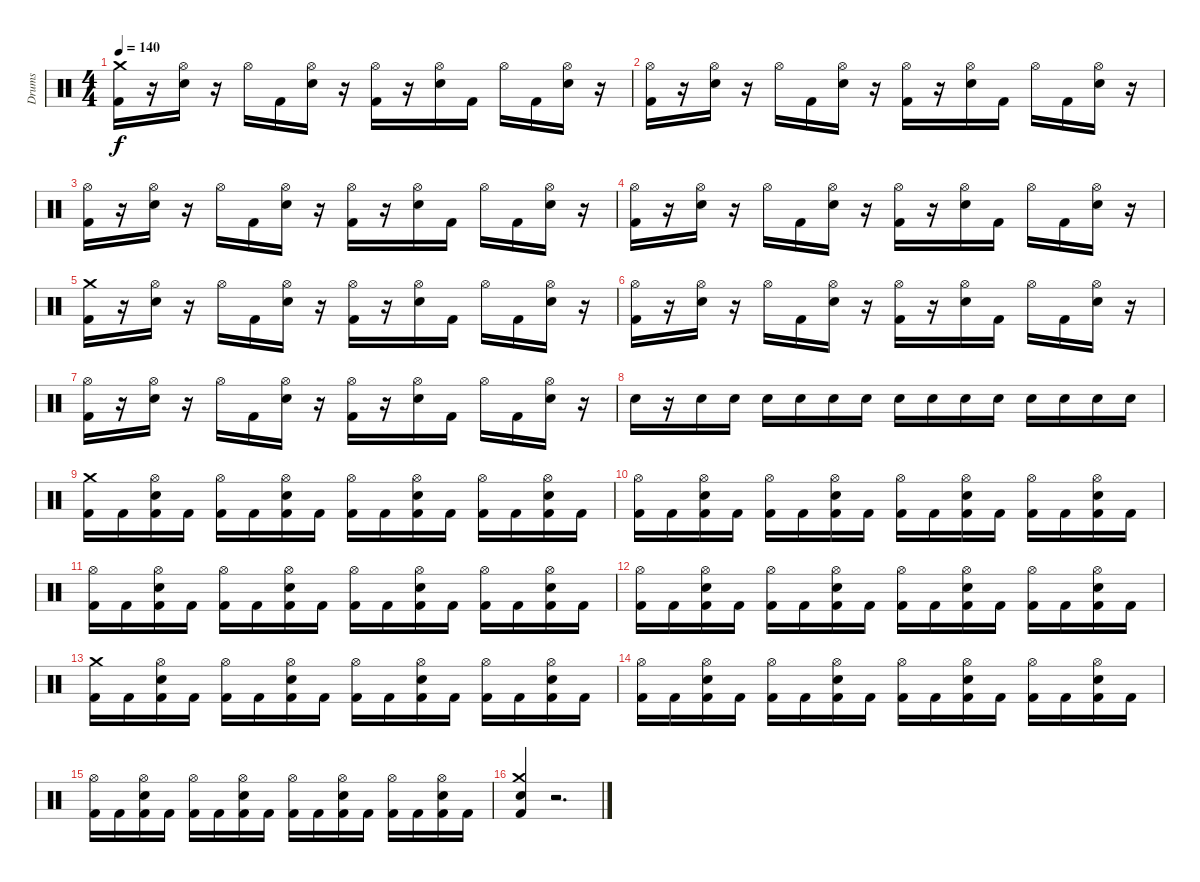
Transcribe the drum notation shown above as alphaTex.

\track ("Drums" "Drums") {instrument percussion}
\staff {score}
\articulation defaults
\ts (4 4)
\tempo 140
\clef neutral
\ks c
("Kick (hit) 2" "Crash medium (hit)").16{dy f} r.16 ("Electric Snare (hit)" "Hi-Hat (open)").16 r.16 "Hi-Hat (open)".16 "Kick (hit) 2".16 ("Electric Snare (hit)" "Hi-Hat (open)").16 r.16 ("Hi-Hat (open)" "Kick (hit) 2").16 r.16 ("Electric Snare (hit)" "Hi-Hat (open)").16 "Kick (hit) 2".16 "Hi-Hat (open)".16 "Kick (hit) 2".16 ("Electric Snare (hit)" "Hi-Hat (open)").16 r.16 |
("Kick (hit) 2" "Hi-Hat (open)").16 r.16 ("Hi-Hat (open)" "Electric Snare (hit)").16 r.16 "Hi-Hat (open)".16 "Kick (hit) 2".16 ("Electric Snare (hit)" "Hi-Hat (open)").16 r.16 ("Kick (hit) 2" "Hi-Hat (open)").16 r.16 ("Hi-Hat (open)" "Electric Snare (hit)").16 "Kick (hit) 2".16 "Hi-Hat (open)".16 "Kick (hit) 2".16 ("Electric Snare (hit)" "Hi-Hat (open)").16 r.16 |
("Kick (hit) 2" "Hi-Hat (open)").16 r.16 ("Electric Snare (hit)" "Hi-Hat (open)").16 r.16 "Hi-Hat (open)".16 "Kick (hit) 2".16 ("Hi-Hat (open)" "Electric Snare (hit)").16 r.16 ("Hi-Hat (open)" "Kick (hit) 2").16 r.16 ("Electric Snare (hit)" "Hi-Hat (open)").16 "Kick (hit) 2".16 "Hi-Hat (open)".16 "Kick (hit) 2".16 ("Hi-Hat (open)" "Electric Snare (hit)").16 r.16 |
("Kick (hit) 2" "Hi-Hat (open)").16 r.16 ("Electric Snare (hit)" "Hi-Hat (open)").16 r.16 "Hi-Hat (open)".16 "Kick (hit) 2".16 ("Hi-Hat (open)" "Electric Snare (hit)").16 r.16 ("Hi-Hat (open)" "Kick (hit) 2").16 r.16 ("Electric Snare (hit)" "Hi-Hat (open)").16 "Kick (hit) 2".16 "Hi-Hat (open)".16 "Kick (hit) 2".16 ("Electric Snare (hit)" "Hi-Hat (open)").16 r.16 |
("Kick (hit) 2" "Crash medium (hit)").16 r.16 ("Hi-Hat (open)" "Electric Snare (hit)").16 r.16 "Hi-Hat (open)".16 "Kick (hit) 2".16 ("Hi-Hat (open)" "Electric Snare (hit)").16 r.16 ("Kick (hit) 2" "Hi-Hat (open)").16 r.16 ("Hi-Hat (open)" "Electric Snare (hit)").16 "Kick (hit) 2".16 "Hi-Hat (open)".16 "Kick (hit) 2".16 ("Hi-Hat (open)" "Electric Snare (hit)").16 r.16 |
("Hi-Hat (open)" "Kick (hit) 2").16 r.16 ("Electric Snare (hit)" "Hi-Hat (open)").16 r.16 "Hi-Hat (open)".16 "Kick (hit) 2".16 ("Hi-Hat (open)" "Electric Snare (hit)").16 r.16 ("Kick (hit) 2" "Hi-Hat (open)").16 r.16 ("Hi-Hat (open)" "Electric Snare (hit)").16 "Kick (hit) 2".16 "Hi-Hat (open)".16 "Kick (hit) 2".16 ("Electric Snare (hit)" "Hi-Hat (open)").16 r.16 |
("Kick (hit) 2" "Hi-Hat (open)").16 r.16 ("Electric Snare (hit)" "Hi-Hat (open)").16 r.16 "Hi-Hat (open)".16 "Kick (hit) 2".16 ("Hi-Hat (open)" "Electric Snare (hit)").16 r.16 ("Kick (hit) 2" "Hi-Hat (open)").16 r.16 ("Electric Snare (hit)" "Hi-Hat (open)").16 "Kick (hit) 2".16 "Hi-Hat (open)".16 "Kick (hit) 2".16 ("Hi-Hat (open)" "Electric Snare (hit)").16 r.16 |
"Electric Snare (hit)".16 r.16 "Electric Snare (hit)".16 "Electric Snare (hit)".16 "Electric Snare (hit)".16 "Electric Snare (hit)".16 "Electric Snare (hit)".16 "Electric Snare (hit)".16 "Electric Snare (hit)".16 "Electric Snare (hit)".16 "Electric Snare (hit)".16 "Electric Snare (hit)".16 "Electric Snare (hit)".16 "Electric Snare (hit)".16 "Electric Snare (hit)".16 "Electric Snare (hit)".16 |
("Crash medium (hit)" "Kick (hit) 2").16 "Kick (hit) 2".16 ("Kick (hit) 2" "Hi-Hat (open)" "Electric Snare (hit)").16 "Kick (hit) 2".16 ("Kick (hit) 2" "Hi-Hat (open)").16 "Kick (hit) 2".16 ("Hi-Hat (open)" "Kick (hit) 2" "Electric Snare (hit)").16 "Kick (hit) 2".16 ("Kick (hit) 2" "Hi-Hat (open)").16 "Kick (hit) 2".16 ("Hi-Hat (open)" "Kick (hit) 2" "Electric Snare (hit)").16 "Kick (hit) 2".16 ("Kick (hit) 2" "Hi-Hat (open)").16 "Kick (hit) 2".16 ("Hi-Hat (open)" "Electric Snare (hit)" "Kick (hit) 2").16 "Kick (hit) 2".16 |
("Kick (hit) 2" "Hi-Hat (open)").16 "Kick (hit) 2".16 ("Hi-Hat (open)" "Kick (hit) 2" "Electric Snare (hit)").16 "Kick (hit) 2".16 ("Kick (hit) 2" "Hi-Hat (open)").16 "Kick (hit) 2".16 ("Hi-Hat (open)" "Kick (hit) 2" "Electric Snare (hit)").16 "Kick (hit) 2".16 ("Kick (hit) 2" "Hi-Hat (open)").16 "Kick (hit) 2".16 ("Hi-Hat (open)" "Kick (hit) 2" "Electric Snare (hit)").16 "Kick (hit) 2".16 ("Hi-Hat (open)" "Kick (hit) 2").16 "Kick (hit) 2".16 ("Electric Snare (hit)" "Kick (hit) 2" "Hi-Hat (open)").16 "Kick (hit) 2".16 |
("Hi-Hat (open)" "Kick (hit) 2").16 "Kick (hit) 2".16 ("Hi-Hat (open)" "Kick (hit) 2" "Electric Snare (hit)").16 "Kick (hit) 2".16 ("Kick (hit) 2" "Hi-Hat (open)").16 "Kick (hit) 2".16 ("Hi-Hat (open)" "Electric Snare (hit)" "Kick (hit) 2").16 "Kick (hit) 2".16 ("Hi-Hat (open)" "Kick (hit) 2").16 "Kick (hit) 2".16 ("Electric Snare (hit)" "Kick (hit) 2" "Hi-Hat (open)").16 "Kick (hit) 2".16 ("Hi-Hat (open)" "Kick (hit) 2").16 "Kick (hit) 2".16 ("Hi-Hat (open)" "Kick (hit) 2" "Electric Snare (hit)").16 "Kick (hit) 2".16 |
("Kick (hit) 2" "Hi-Hat (open)").16 "Kick (hit) 2".16 ("Hi-Hat (open)" "Kick (hit) 2" "Electric Snare (hit)").16 "Kick (hit) 2".16 ("Kick (hit) 2" "Hi-Hat (open)").16 "Kick (hit) 2".16 ("Electric Snare (hit)" "Kick (hit) 2" "Hi-Hat (open)").16 "Kick (hit) 2".16 ("Kick (hit) 2" "Hi-Hat (open)").16 "Kick (hit) 2".16 ("Electric Snare (hit)" "Hi-Hat (open)" "Kick (hit) 2").16 "Kick (hit) 2".16 ("Kick (hit) 2" "Hi-Hat (open)").16 "Kick (hit) 2".16 ("Electric Snare (hit)" "Hi-Hat (open)" "Kick (hit) 2").16 "Kick (hit) 2".16 |
("Crash medium (hit)" "Kick (hit) 2").16 "Kick (hit) 2".16 ("Electric Snare (hit)" "Kick (hit) 2" "Hi-Hat (open)").16 "Kick (hit) 2".16 ("Kick (hit) 2" "Hi-Hat (open)").16 "Kick (hit) 2".16 ("Electric Snare (hit)" "Hi-Hat (open)" "Kick (hit) 2").16 "Kick (hit) 2".16 ("Kick (hit) 2" "Hi-Hat (open)").16 "Kick (hit) 2".16 ("Electric Snare (hit)" "Hi-Hat (open)" "Kick (hit) 2").16 "Kick (hit) 2".16 ("Kick (hit) 2" "Hi-Hat (open)").16 "Kick (hit) 2".16 ("Kick (hit) 2" "Electric Snare (hit)" "Hi-Hat (open)").16 "Kick (hit) 2".16 |
("Kick (hit) 2" "Hi-Hat (open)").16 "Kick (hit) 2".16 ("Hi-Hat (open)" "Kick (hit) 2" "Electric Snare (hit)").16 "Kick (hit) 2".16 ("Kick (hit) 2" "Hi-Hat (open)").16 "Kick (hit) 2".16 ("Electric Snare (hit)" "Hi-Hat (open)" "Kick (hit) 2").16 "Kick (hit) 2".16 ("Hi-Hat (open)" "Kick (hit) 2").16 "Kick (hit) 2".16 ("Hi-Hat (open)" "Electric Snare (hit)" "Kick (hit) 2").16 "Kick (hit) 2".16 ("Kick (hit) 2" "Hi-Hat (open)").16 "Kick (hit) 2".16 ("Hi-Hat (open)" "Kick (hit) 2" "Electric Snare (hit)").16 "Kick (hit) 2".16 |
("Kick (hit) 2" "Hi-Hat (open)").16 "Kick (hit) 2".16 ("Electric Snare (hit)" "Hi-Hat (open)" "Kick (hit) 2").16 "Kick (hit) 2".16 ("Kick (hit) 2" "Hi-Hat (open)").16 "Kick (hit) 2".16 ("Kick (hit) 2" "Hi-Hat (open)" "Electric Snare (hit)").16 "Kick (hit) 2".16 ("Kick (hit) 2" "Hi-Hat (open)").16 "Kick (hit) 2".16 ("Electric Snare (hit)" "Hi-Hat (open)" "Kick (hit) 2").16 "Kick (hit) 2".16 ("Hi-Hat (open)" "Kick (hit) 2").16 "Kick (hit) 2".16 ("Electric Snare (hit)" "Kick (hit) 2" "Hi-Hat (open)").16 "Kick (hit) 2".16 |
("Crash medium (hit)" "Electric Snare (hit)" "Kick (hit) 2").4 r.2{d}
